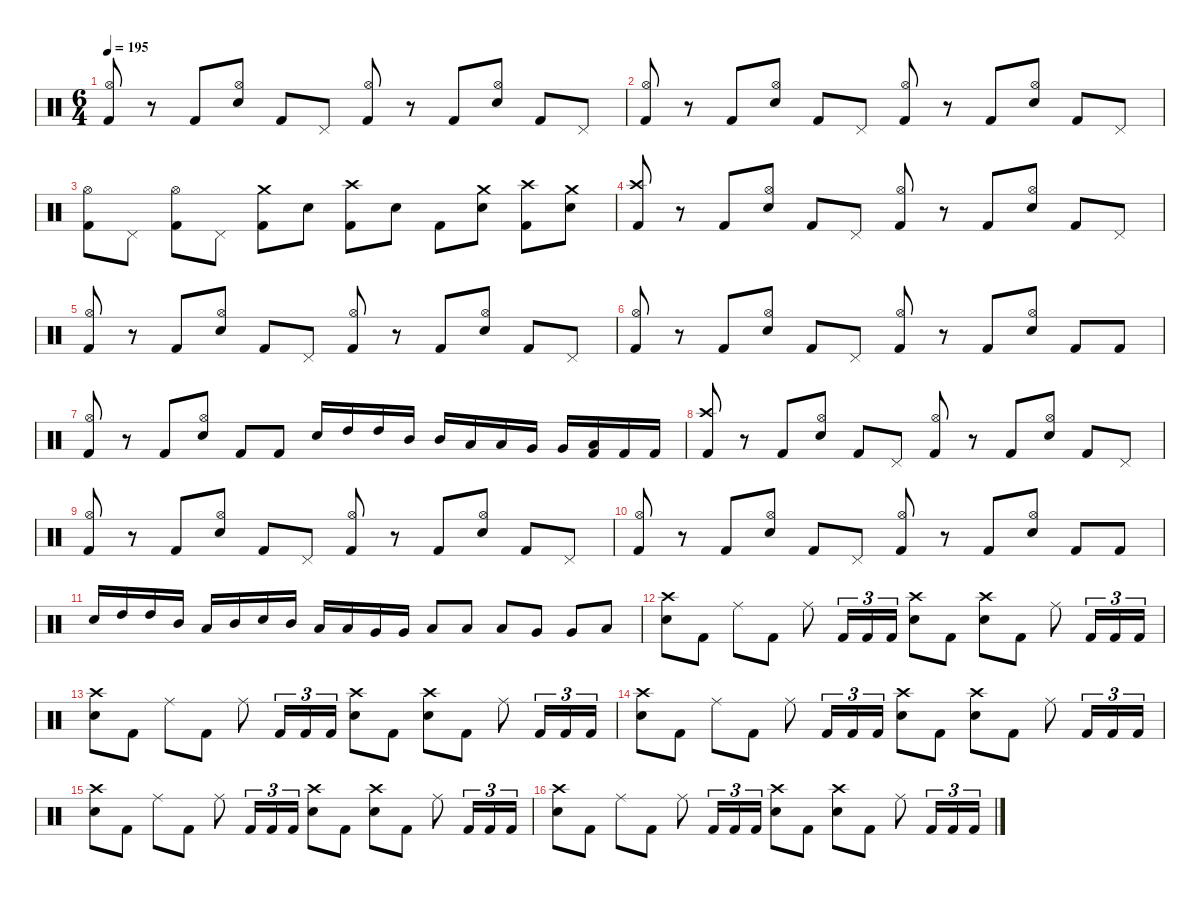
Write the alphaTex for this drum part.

\defaultSystemsLayout 4
\hideDynamics
\bracketExtendMode nobrackets
\singleTrackTrackNamePolicy hidden
\multiTrackTrackNamePolicy hidden
\firstSystemTrackNameMode fullname
\firstSystemTrackNameOrientation horizontal
\otherSystemsTrackNameOrientation horizontal
\track ("Drums" "drm.") {instrument percussion}
\staff {score}
\articulation defaults
\ts (6 4)
\tempo 195
\clef neutral
\ks c
("Hi-Hat (open)" "Kick (hit) 2").8{dy f beam Up} r.8{beam Up} "Kick (hit) 2".8{beam Up} ("Hi-Hat (open)" "Snare (hit) 2").8{beam Up} "Kick (hit) 2".8{beam Up} "Pedal Hi-Hat (hit)".8{beam Up} ("Hi-Hat (open)" "Kick (hit) 2").8{beam Up} r.8{beam Up} "Kick (hit) 2".8{beam Up} ("Hi-Hat (open)" "Snare (hit) 2").8{beam Up} "Kick (hit) 2".8{beam Up} "Pedal Hi-Hat (hit)".8{beam Up} |
("Hi-Hat (open)" "Kick (hit) 2").8{beam Up} r.8{beam Up} "Kick (hit) 2".8{beam Up} ("Hi-Hat (open)" "Snare (hit) 2").8{beam Up} "Kick (hit) 2".8{beam Up} "Pedal Hi-Hat (hit)".8{beam Up} ("Hi-Hat (open)" "Kick (hit) 2").8{beam Up} r.8{beam Up} "Kick (hit) 2".8{beam Up} ("Hi-Hat (open)" "Snare (hit) 2").8{beam Up} "Kick (hit) 2".8{beam Up} "Pedal Hi-Hat (hit)".8{beam Up} |
("Hi-Hat (open)" "Kick (hit) 2").8{beam Down} "Pedal Hi-Hat (hit)".8{beam Down} ("Hi-Hat (open)" "Kick (hit) 2").8{beam Down} "Pedal Hi-Hat (hit)".8{beam Down} ("Crash medium (hit)" "Kick (hit) 2").8{beam Down} "Snare (hit) 2".8{beam Down} ("Crash high (hit)" "Kick (hit) 2").8{beam Down} "Snare (hit) 2".8{beam Down} "Kick (hit) 2".8{beam Down} ("Crash medium (hit)" "Snare (hit) 2").8{beam Down} ("Crash high (hit)" "Kick (hit) 2").8{beam Down} ("Crash medium (hit)" "Snare (hit) 2").8{beam Down} |
("Crash high (hit)" "Kick (hit) 2").8{beam Up} r.8{beam Up} "Kick (hit) 2".8{beam Up} ("Hi-Hat (open)" "Snare (hit) 2").8{beam Up} "Kick (hit) 2".8{beam Up} "Pedal Hi-Hat (hit)".8{beam Up} ("Hi-Hat (open)" "Kick (hit) 2").8{beam Up} r.8{beam Up} "Kick (hit) 2".8{beam Up} ("Hi-Hat (open)" "Snare (hit) 2").8{beam Up} "Kick (hit) 2".8{beam Up} "Pedal Hi-Hat (hit)".8{beam Up} |
("Hi-Hat (open)" "Kick (hit) 2").8{beam Up} r.8{beam Up} "Kick (hit) 2".8{beam Up} ("Hi-Hat (open)" "Snare (hit) 2").8{beam Up} "Kick (hit) 2".8{beam Up} "Pedal Hi-Hat (hit)".8{beam Up} ("Hi-Hat (open)" "Kick (hit) 2").8{beam Up} r.8{beam Up} "Kick (hit) 2".8{beam Up} ("Hi-Hat (open)" "Snare (hit) 2").8{beam Up} "Kick (hit) 2".8{beam Up} "Pedal Hi-Hat (hit)".8{beam Up} |
("Hi-Hat (open)" "Kick (hit) 2").8{beam Up} r.8{beam Up} "Kick (hit) 2".8{beam Up} ("Hi-Hat (open)" "Snare (hit) 2").8{beam Up} "Kick (hit) 2".8{beam Up} "Pedal Hi-Hat (hit)".8{beam Up} ("Hi-Hat (open)" "Kick (hit) 2").8{beam Up} r.8{beam Up} "Kick (hit) 2".8{beam Up} ("Hi-Hat (open)" "Snare (hit) 2").8{beam Up} "Kick (hit) 2".8{beam Up} "Kick (hit) 2".8{beam Up} |
("Hi-Hat (open)" "Kick (hit) 2").8{beam Up} r.8{beam Up} "Kick (hit) 2".8{beam Up} ("Hi-Hat (open)" "Snare (hit) 2").8{beam Up} "Kick (hit) 2".8{beam Up} "Kick (hit) 2".8{beam Up} "Snare (hit) 2".16{beam Up} "High Tom (hit)".16{beam Up} "High Tom (hit)".16{beam Up} "Mid Tom (hit)".16{beam Up} "Mid Tom (hit)".16{beam Up} "Low Tom (hit)".16{beam Up} "Low Tom (hit)".16{beam Up} "Very Low Tom (hit)".16{beam Up} "Very Low Tom (hit)".16{beam Up} ("Low Floor Tom (hit)" "Kick (hit) 2").16{beam Up} "Kick (hit) 2".16{beam Up} "Kick (hit) 2".16{beam Up} |
("Crash high (hit)" "Kick (hit) 2").8{beam Up} r.8{beam Up} "Kick (hit) 2".8{beam Up} ("Hi-Hat (open)" "Snare (hit) 2").8{beam Up} "Kick (hit) 2".8{beam Up} "Pedal Hi-Hat (hit)".8{beam Up} ("Hi-Hat (open)" "Kick (hit) 2").8{beam Up} r.8{beam Up} "Kick (hit) 2".8{beam Up} ("Hi-Hat (open)" "Snare (hit) 2").8{beam Up} "Kick (hit) 2".8{beam Up} "Pedal Hi-Hat (hit)".8{beam Up} |
("Hi-Hat (open)" "Kick (hit) 2").8{beam Up} r.8{beam Up} "Kick (hit) 2".8{beam Up} ("Hi-Hat (open)" "Snare (hit) 2").8{beam Up} "Kick (hit) 2".8{beam Up} "Pedal Hi-Hat (hit)".8{beam Up} ("Hi-Hat (open)" "Kick (hit) 2").8{beam Up} r.8{beam Up} "Kick (hit) 2".8{beam Up} ("Hi-Hat (open)" "Snare (hit) 2").8{beam Up} "Kick (hit) 2".8{beam Up} "Pedal Hi-Hat (hit)".8{beam Up} |
("Hi-Hat (open)" "Kick (hit) 2").8{beam Up} r.8{beam Up} "Kick (hit) 2".8{beam Up} ("Hi-Hat (open)" "Snare (hit) 2").8{beam Up} "Kick (hit) 2".8{beam Up} "Pedal Hi-Hat (hit)".8{beam Up} ("Hi-Hat (open)" "Kick (hit) 2").8{beam Up} r.8{beam Up} "Kick (hit) 2".8{beam Up} ("Hi-Hat (open)" "Snare (hit) 2").8{beam Up} "Kick (hit) 2".8{beam Up} "Kick (hit) 2".8{beam Up} |
"Snare (hit) 2".16{beam Up} "High Tom (hit)".16{beam Up} "High Tom (hit)".16{beam Up} "Mid Tom (hit)".16{beam Up} "Low Tom (hit)".16{beam Up} "Mid Tom (hit)".16{beam Up} "Snare (hit) 2".16{beam Up} "Mid Tom (hit)".16{beam Up} "Low Tom (hit)".16{beam Up} "Low Tom (hit)".16{beam Up} "Very Low Tom (hit)".16{beam Up} "Very Low Tom (hit)".16{beam Up} "Low Tom (hit)".8{beam Up} "Low Tom (hit)".8{beam Up} "Low Tom (hit)".8{beam Up} "Very Low Tom (hit)".8{beam Up} "Very Low Tom (hit)".8{beam Up} "Low Floor Tom (hit)".8{beam Up} |
("Crash high (hit)" "Snare (hit) 2").8{beam Down} "Kick (hit) 2".8{beam Down} "Ride (middle)".8{beam Down} "Kick (hit) 2".8{beam Down} "Ride (middle)".8{beam Down} "Kick (hit) 2".16{tu (3 2) beam Up} "Kick (hit) 2".16{tu (3 2) beam Up} "Kick (hit) 2".16{tu (3 2) beam Up} ("Crash high (hit)" "Snare (hit) 2").8{beam Down} "Kick (hit) 2".8{beam Down} ("Crash high (hit)" "Snare (hit) 2").8{beam Down} "Kick (hit) 2".8{beam Down} "Ride (middle)".8{beam Down} "Kick (hit) 2".16{tu (3 2) beam Up} "Kick (hit) 2".16{tu (3 2) beam Up} "Kick (hit) 2".16{tu (3 2) beam Up} |
("Crash high (hit)" "Snare (hit) 2").8{beam Down} "Kick (hit) 2".8{beam Down} "Ride (middle)".8{beam Down} "Kick (hit) 2".8{beam Down} "Ride (middle)".8{beam Down} "Kick (hit) 2".16{tu (3 2) beam Up} "Kick (hit) 2".16{tu (3 2) beam Up} "Kick (hit) 2".16{tu (3 2) beam Up} ("Crash high (hit)" "Snare (hit) 2").8{beam Down} "Kick (hit) 2".8{beam Down} ("Crash high (hit)" "Snare (hit) 2").8{beam Down} "Kick (hit) 2".8{beam Down} "Ride (middle)".8{beam Down} "Kick (hit) 2".16{tu (3 2) beam Up} "Kick (hit) 2".16{tu (3 2) beam Up} "Kick (hit) 2".16{tu (3 2) beam Up} |
("Crash high (hit)" "Snare (hit) 2").8{beam Down} "Kick (hit) 2".8{beam Down} "Ride (middle)".8{beam Down} "Kick (hit) 2".8{beam Down} "Ride (middle)".8{beam Down} "Kick (hit) 2".16{tu (3 2) beam Up} "Kick (hit) 2".16{tu (3 2) beam Up} "Kick (hit) 2".16{tu (3 2) beam Up} ("Crash high (hit)" "Snare (hit) 2").8{beam Down} "Kick (hit) 2".8{beam Down} ("Crash high (hit)" "Snare (hit) 2").8{beam Down} "Kick (hit) 2".8{beam Down} "Ride (middle)".8{beam Down} "Kick (hit) 2".16{tu (3 2) beam Up} "Kick (hit) 2".16{tu (3 2) beam Up} "Kick (hit) 2".16{tu (3 2) beam Up} |
("Crash high (hit)" "Snare (hit) 2").8{beam Down} "Kick (hit) 2".8{beam Down} "Ride (middle)".8{beam Down} "Kick (hit) 2".8{beam Down} "Ride (middle)".8{beam Down} "Kick (hit) 2".16{tu (3 2) beam Up} "Kick (hit) 2".16{tu (3 2) beam Up} "Kick (hit) 2".16{tu (3 2) beam Up} ("Crash high (hit)" "Snare (hit) 2").8{beam Down} "Kick (hit) 2".8{beam Down} ("Crash high (hit)" "Snare (hit) 2").8{beam Down} "Kick (hit) 2".8{beam Down} "Ride (middle)".8{beam Down} "Kick (hit) 2".16{tu (3 2) beam Up} "Kick (hit) 2".16{tu (3 2) beam Up} "Kick (hit) 2".16{tu (3 2) beam Up} |
("Crash high (hit)" "Snare (hit) 2").8{beam Down} "Kick (hit) 2".8{beam Down} "Ride (middle)".8{beam Down} "Kick (hit) 2".8{beam Down} "Ride (middle)".8{beam Down} "Kick (hit) 2".16{tu (3 2) beam Up} "Kick (hit) 2".16{tu (3 2) beam Up} "Kick (hit) 2".16{tu (3 2) beam Up} ("Crash high (hit)" "Snare (hit) 2").8{beam Down} "Kick (hit) 2".8{beam Down} ("Crash high (hit)" "Snare (hit) 2").8{beam Down} "Kick (hit) 2".8{beam Down} "Ride (middle)".8{beam Down} "Kick (hit) 2".16{tu (3 2) beam Up} "Kick (hit) 2".16{tu (3 2) beam Up} "Kick (hit) 2".16{tu (3 2) beam Up}
